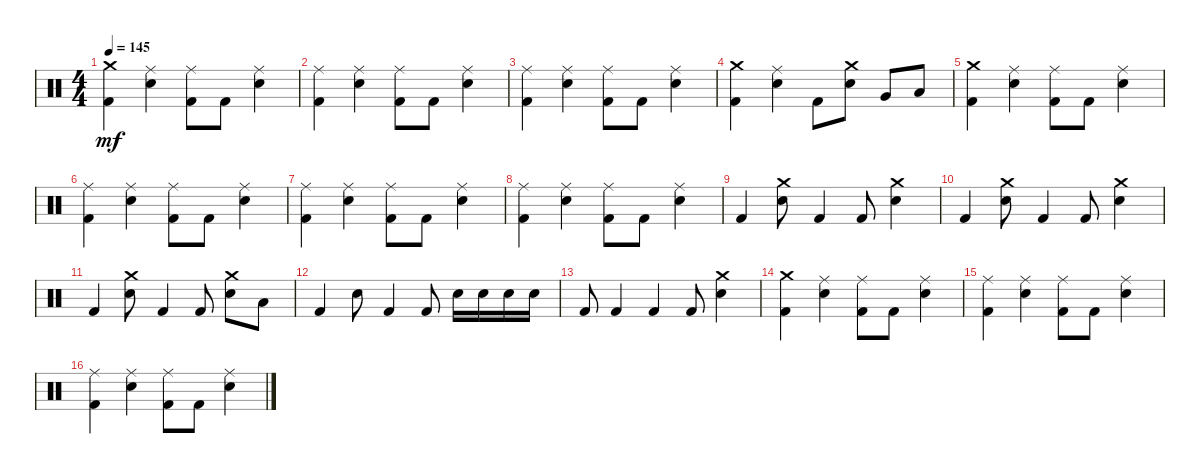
\track "" {instrument percussion}
\staff {score}
\articulation defaults
\ts (4 4)
\tempo 145
\clef neutral
\ks c
("Crash medium (hit)" "Kick (hit) 2").4{dy mf} ("Ride (middle)" "Snare (hit) 2").4 ("Ride (middle)" "Kick (hit) 2").8 "Kick (hit) 2".8 ("Ride (middle)" "Snare (hit) 2").4 |
("Ride (middle)" "Kick (hit) 2").4 ("Ride (middle)" "Snare (hit) 2").4 ("Ride (middle)" "Kick (hit) 2").8 "Kick (hit) 2".8 ("Ride (middle)" "Snare (hit) 2").4 |
("Ride (middle)" "Kick (hit) 2").4 ("Ride (middle)" "Snare (hit) 2").4 ("Ride (middle)" "Kick (hit) 2").8 "Kick (hit) 2".8 ("Ride (middle)" "Snare (hit) 2").4 |
("Crash medium (hit)" "Kick (hit) 2").4 ("Ride (middle)" "Snare (hit) 2").4 "Kick (hit) 2".8 ("Crash medium (hit)" "Snare (hit) 2").8 "Very Low Tom (hit)".8 "Low Floor Tom (hit)".8 |
("Crash medium (hit)" "Kick (hit) 2").4 ("Ride (middle)" "Snare (hit) 2").4 ("Ride (middle)" "Kick (hit) 2").8 "Kick (hit) 2".8 ("Ride (middle)" "Snare (hit) 2").4 |
("Ride (middle)" "Kick (hit) 2").4 ("Ride (middle)" "Snare (hit) 2").4 ("Ride (middle)" "Kick (hit) 2").8 "Kick (hit) 2".8 ("Ride (middle)" "Snare (hit) 2").4 |
("Ride (middle)" "Kick (hit) 2").4 ("Ride (middle)" "Snare (hit) 2").4 ("Ride (middle)" "Kick (hit) 2").8 "Kick (hit) 2".8 ("Ride (middle)" "Snare (hit) 2").4 |
("Ride (middle)" "Kick (hit) 2").4 ("Ride (middle)" "Snare (hit) 2").4 ("Ride (middle)" "Kick (hit) 2").8 "Kick (hit) 2".8 ("Ride (middle)" "Snare (hit) 2").4 |
"Kick (hit) 2".4 ("Crash medium (hit)" "Snare (hit) 2").8 "Kick (hit) 2".4 "Kick (hit) 2".8 ("Crash medium (hit)" "Snare (hit) 2").4 |
"Kick (hit) 2".4 ("Crash medium (hit)" "Snare (hit) 2").8 "Kick (hit) 2".4 "Kick (hit) 2".8 ("Crash medium (hit)" "Snare (hit) 2").4 |
"Kick (hit) 2".4 ("Crash medium (hit)" "Snare (hit) 2").8 "Kick (hit) 2".4 "Kick (hit) 2".8 ("Crash medium (hit)" "Snare (hit) 2").8 "Low Floor Tom (hit)".8 |
"Kick (hit) 2".4 "Snare (hit) 2".8 "Kick (hit) 2".4 "Kick (hit) 2".8 "Snare (hit) 2".16 "Snare (hit) 2".16 "Snare (hit) 2".16 "Snare (hit) 2".16 |
"Kick (hit) 2".8 "Kick (hit) 2".4 "Kick (hit) 2".4 "Kick (hit) 2".8 ("Crash medium (hit)" "Snare (hit) 2").4 |
("Crash medium (hit)" "Kick (hit) 2").4 ("Ride (middle)" "Snare (hit) 2").4 ("Ride (middle)" "Kick (hit) 2").8 "Kick (hit) 2".8 ("Ride (middle)" "Snare (hit) 2").4 |
("Ride (middle)" "Kick (hit) 2").4 ("Ride (middle)" "Snare (hit) 2").4 ("Ride (middle)" "Kick (hit) 2").8 "Kick (hit) 2".8 ("Ride (middle)" "Snare (hit) 2").4 |
("Ride (middle)" "Kick (hit) 2").4 ("Ride (middle)" "Snare (hit) 2").4 ("Ride (middle)" "Kick (hit) 2").8 "Kick (hit) 2".8 ("Ride (middle)" "Snare (hit) 2").4
